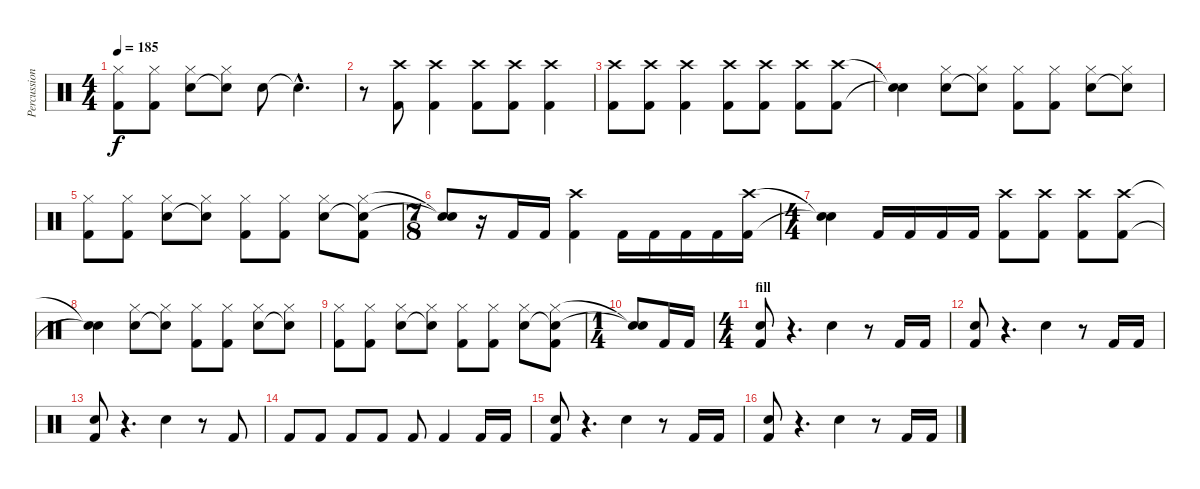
\track ("Percussion" "Percussion") {instrument percussion}
\staff {score}
\articulation defaults
\ts (4 4)
\tempo 185
\clef neutral
\ks c
("Hi-Hat (closed)" "Kick (hit) 2").8{dy f} ("Hi-Hat (closed)" "Kick (hit) 2").8 ("Hi-Hat (closed)" "Snare (hit) 2").8 ("Hi-Hat (closed)" "Snare (hit)"{t}).8 "Snare (hit) 2".8 "Snare (hit)"{hac t}.4{d} |
r.8 ("Crash high (hit)" "Kick (hit) 2").8 ("Crash high (hit)" "Kick (hit) 2").4 ("Crash high (hit)" "Kick (hit) 2").8 ("Crash high (hit)" "Kick (hit) 2").8 ("Crash high (hit)" "Kick (hit) 2").4 |
("Crash high (hit)" "Kick (hit) 2").8 ("Crash high (hit)" "Kick (hit) 2").8 ("Crash high (hit)" "Kick (hit) 2").4 ("Crash high (hit)" "Kick (hit) 2").8 ("Crash high (hit)" "Kick (hit) 2").8 ("Crash high (hit)" "Kick (hit) 2").8 ("Crash high (hit)" "Kick (hit) 2").8 |
("Snare (hit)"{t} "Snare (hit)"{t}).4 ("Hi-Hat (closed)" "Snare (hit) 2").8 ("Hi-Hat (closed)" "Snare (hit) 2"{t}).8 ("Hi-Hat (closed)" "Kick (hit) 2").8 ("Hi-Hat (closed)" "Kick (hit) 2").8 ("Hi-Hat (closed)" "Snare (hit) 2").8 ("Hi-Hat (closed)" "Snare (hit)"{t}).8 |
("Hi-Hat (closed)" "Kick (hit) 2").8 ("Hi-Hat (closed)" "Kick (hit) 2").8 ("Hi-Hat (closed)" "Snare (hit) 2").8 ("Hi-Hat (closed)" "Snare (hit)"{t}).8 ("Hi-Hat (closed)" "Kick (hit) 2").8 ("Hi-Hat (closed)" "Kick (hit) 2").8 ("Hi-Hat (closed)" "Snare (hit) 2").8 ("Hi-Hat (closed)" "Snare (hit)"{t} "Kick (hit) 2").8 |
\ts (7 8)
("Snare (hit)"{t} "Snare (hit)"{t}).8 r.16 "Kick (hit) 2".16 "Kick (hit) 2".16 ("Crash high (hit)" "Kick (hit) 2").4 "Kick (hit) 2".16 "Kick (hit) 2".16 "Kick (hit) 2".16 "Kick (hit) 2".16 ("Crash high (hit)" "Kick (hit) 2").16 |
\ts (4 4)
("Snare (hit)"{t} "Snare (hit)"{t}).4 "Kick (hit) 2".16 "Kick (hit) 2".16 "Kick (hit) 2".16 "Kick (hit) 2".16 ("Crash high (hit)" "Kick (hit) 2").8 ("Crash high (hit)" "Kick (hit) 2").8 ("Crash high (hit)" "Kick (hit) 2").8 ("Crash high (hit)" "Kick (hit) 2").8 |
("Snare (hit)"{t} "Snare (hit)"{t}).4 ("Hi-Hat (closed)" "Snare (hit) 2").8 ("Hi-Hat (closed)" "Snare (hit) 2"{t}).8 ("Hi-Hat (closed)" "Kick (hit) 2").8 ("Hi-Hat (closed)" "Kick (hit) 2").8 ("Hi-Hat (closed)" "Snare (hit) 2").8 ("Hi-Hat (closed)" "Snare (hit)"{t}).8 |
("Hi-Hat (closed)" "Kick (hit) 2").8 ("Hi-Hat (closed)" "Kick (hit) 2").8 ("Hi-Hat (closed)" "Snare (hit) 2").8 ("Hi-Hat (closed)" "Snare (hit)"{t}).8 ("Hi-Hat (closed)" "Kick (hit) 2").8 ("Hi-Hat (closed)" "Kick (hit) 2").8 ("Hi-Hat (closed)" "Snare (hit) 2").8 ("Hi-Hat (closed)" "Snare (hit)"{t} "Kick (hit) 2").8 |
\ts (1 4)
("Snare (hit)"{t} "Snare (hit)"{t}).8 "Kick (hit) 2".16 "Kick (hit) 2".16 |
\ts (4 4)
\section ("" "fill")
("Snare (hit) 2" "Kick (hit) 2").8 r.4{d} "Snare (hit) 2".4 r.8 "Kick (hit) 2".16 "Kick (hit) 2".16 |
("Snare (hit) 2" "Kick (hit) 2").8 r.4{d} "Snare (hit) 2".4 r.8 "Kick (hit) 2".16 "Kick (hit) 2".16 |
("Snare (hit) 2" "Kick (hit) 2").8 r.4{d} "Snare (hit) 2".4 r.8 "Kick (hit) 2".8 |
"Kick (hit) 2".8 "Kick (hit) 2".8 "Kick (hit) 2".8 "Kick (hit) 2".8 "Kick (hit) 2".8 "Kick (hit) 2".4 "Kick (hit) 2".16 "Kick (hit) 2".16 |
("Snare (hit) 2" "Kick (hit) 2").8 r.4{d} "Snare (hit) 2".4 r.8 "Kick (hit) 2".16 "Kick (hit) 2".16 |
("Snare (hit) 2" "Kick (hit) 2").8 r.4{d} "Snare (hit) 2".4 r.8 "Kick (hit) 2".16 "Kick (hit) 2".16
